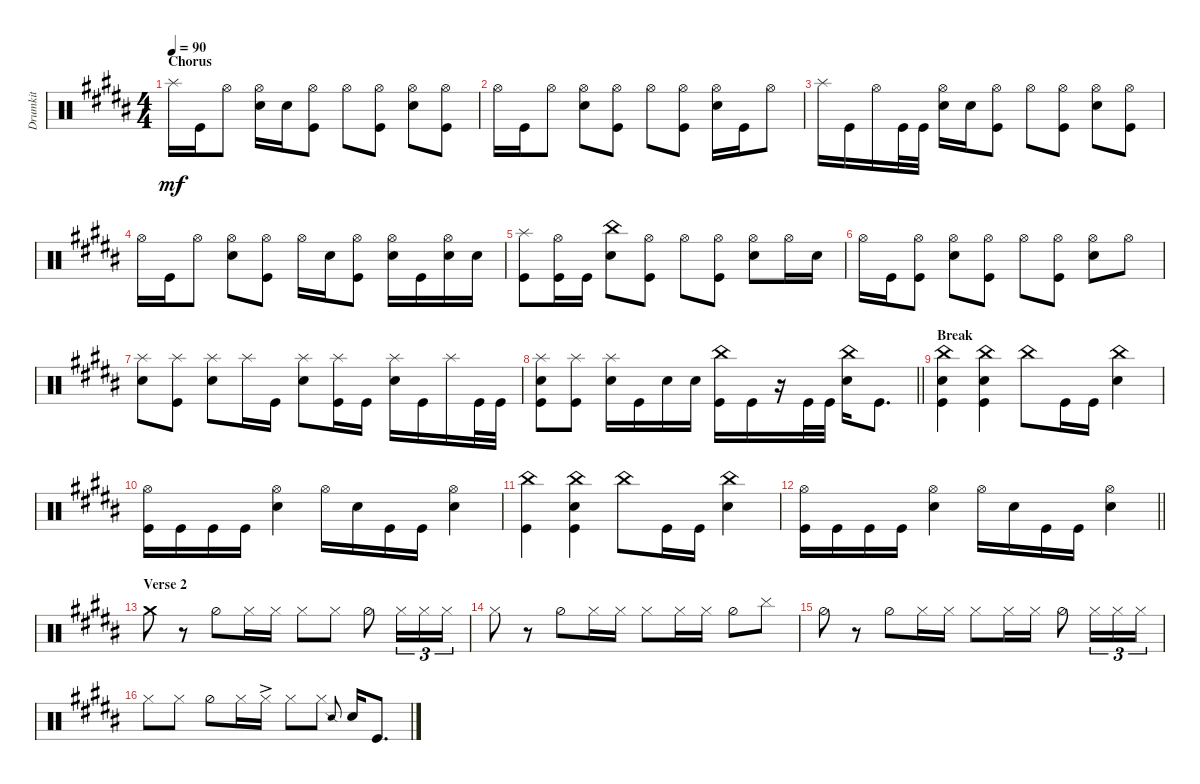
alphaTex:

\track ("Drumkit" "Drumkit") {instrument percussion}
\staff {score}
\articulation defaults
\ts (4 4)
\section ("" "Chorus")
\tempo 90
\clef neutral
\ks b "Splash (hit)".16{dy mf} "Kick (hit)".16 "Hi-Hat (open)".8
("Snare (hit) 2" "Hi-Hat (open)").16 "Snare (hit) 2".16 ("Kick (hit)" "Hi-Hat (open)").8 "Hi-Hat (open)".8 ("Kick (hit)" "Hi-Hat (open)").8 ("Snare (hit) 2" "Hi-Hat (open)").8 ("Kick (hit)" "Hi-Hat (open)").8 |
"Hi-Hat (open)".16 "Kick (hit)".16 "Hi-Hat (open)".8 ("Snare (hit) 2" "Hi-Hat (open)").8 ("Kick (hit)" "Hi-Hat (open)").8 "Hi-Hat (open)".8 ("Kick (hit)" "Hi-Hat (open)").8 ("Snare (hit) 2" "Hi-Hat (open)").16 "Kick (hit)".16 "Hi-Hat (open)".8 |
"Splash (hit)".16 "Kick (hit)".16 "Hi-Hat (open)".16 "Kick (hit)".32 "Kick (hit)".32 ("Snare (hit) 2" "Hi-Hat (open)").16 "Snare (hit) 2".16 ("Kick (hit)" "Hi-Hat (open)").8 "Hi-Hat (open)".8 ("Kick (hit)" "Hi-Hat (open)").8 ("Snare (hit) 2" "Hi-Hat (open)").8 ("Kick (hit)" "Hi-Hat (open)").8 |
"Hi-Hat (open)".16 "Kick (hit)".16 "Hi-Hat (open)".8 ("Snare (hit) 2" "Hi-Hat (open)").8 ("Kick (hit)" "Hi-Hat (open)").8 "Hi-Hat (open)".16 "Snare (hit) 2".16 ("Kick (hit)" "Hi-Hat (open)").8 ("Snare (hit) 2" "Hi-Hat (open)").16 "Kick (hit)".16 ("Hi-Hat (open)" "Snare (hit) 2").16 "Snare (hit) 2".16 |
("Kick (hit)" "Splash (hit)").8 ("Hi-Hat (open)" "Kick (hit)").16 "Kick (hit)".16 ("Snare (hit) 2" "China (hit)").8 ("Kick (hit)" "Hi-Hat (open)").8 "Hi-Hat (open)".8 ("Kick (hit)" "Hi-Hat (open)").8 ("Snare (hit) 2" "Hi-Hat (open)").8 "Hi-Hat (open)".16 "Snare (hit) 2".16 |
"Hi-Hat (open)".16 "Kick (hit)".16 ("Hi-Hat (open)" "Kick (hit)").8 ("Snare (hit) 2" "Hi-Hat (open)").8 ("Kick (hit)" "Hi-Hat (open)").8 "Hi-Hat (open)".8 ("Kick (hit)" "Hi-Hat (open)").8 ("Snare (hit) 2" "Hi-Hat (open)").8 "Hi-Hat (open)".8 |
("Splash (hit)" "Snare (hit) 2").8 ("Splash (hit)" "Kick (hit)").8 ("Splash (hit)" "Snare (hit) 2").8 "Splash (hit)".16 "Kick (hit)".16 ("Splash (hit)" "Snare (hit) 2").8 ("Splash (hit)" "Kick (hit)").16 "Kick (hit)".16 ("Splash (hit)" "Snare (hit) 2").16 "Kick (hit)".16 "Splash (hit)".16 "Kick (hit)".32 "Kick (hit)".32 |
\barLineRight lightlight
("Kick (hit)" "Snare (hit) 2" "Splash (hit)").8 ("Kick (hit)" "Splash (hit)").8 ("Snare (hit) 2" "Splash (hit)").16 "Kick (hit)".16 "Snare (hit) 2".16 "Snare (hit) 2".16 ("Kick (hit)" "China (hit)").16 "Kick (hit)".16 r.16 "Kick (hit)".32 "Kick (hit)".32 ("Snare (hit) 2" "China (hit)").16 "Kick (hit)".8{d} |
\section ("" "Break")
("China (hit)" "Kick (hit)" "Snare (hit) 2").4 ("Snare (hit) 2" "Kick (hit)" "China (hit)").4 "China (hit)".8 "Kick (hit)".16 "Kick (hit)".16 ("Snare (hit) 2" "China (hit)").4 |
("Hi-Hat (open)" "Kick (hit)").16 "Kick (hit)".16 "Kick (hit)".16 "Kick (hit)".16 ("Hi-Hat (open)" "Snare (hit) 2").4 "Hi-Hat (open)".16 "Snare (hit) 2".16 "Kick (hit)".16 "Kick (hit)".16 ("Hi-Hat (open)" "Snare (hit) 2").4 |
("China (hit)" "Kick (hit)").4 ("Snare (hit) 2" "Kick (hit)" "China (hit)").4 "China (hit)".8 "Kick (hit)".16 "Kick (hit)".16 ("Snare (hit) 2" "China (hit)").4 |
\barLineRight lightlight
("Hi-Hat (open)" "Kick (hit)").16 "Kick (hit)".16 "Kick (hit)".16 "Kick (hit)".16 ("Hi-Hat (open)" "Snare (hit) 2").4 "Hi-Hat (open)".16 "Snare (hit) 2".16 "Kick (hit)".16 "Kick (hit)".16 ("Hi-Hat (open)" "Snare (hit) 2").4 |
\section ("" "Verse 2")
"Crash medium (hit)".8 r.8 "Hi-Hat (half)".8 "Hi-Hat (closed)".16 "Hi-Hat (closed)".16 "Hi-Hat (closed)".8 "Hi-Hat (closed)".8 "Hi-Hat (half)".8 "Hi-Hat (closed)".16{tu (3 2)} "Hi-Hat (closed)".16{tu (3 2)} "Hi-Hat (closed)".16{tu (3 2)} |
"Hi-Hat (closed)".8 r.8 "Hi-Hat (half)".8 "Hi-Hat (closed)".16 "Hi-Hat (closed)".16 "Hi-Hat (closed)".8 "Hi-Hat (closed)".16 "Hi-Hat (closed)".16 "Hi-Hat (half)".8 "Cymbal (hit)".8 |
"Hi-Hat (half)".8 r.8 "Hi-Hat (half)".8 "Hi-Hat (closed)".16 "Hi-Hat (closed)".16 "Hi-Hat (closed)".8 "Hi-Hat (closed)".16 "Hi-Hat (closed)".16 "Hi-Hat (half)".8 "Hi-Hat (closed)".16{tu (3 2)} "Hi-Hat (closed)".16{tu (3 2)} "Hi-Hat (closed)".16{tu (3 2)} |
"Hi-Hat (closed)".8 "Hi-Hat (closed)".8 "Hi-Hat (half)".8 "Hi-Hat (closed)".16 "Hi-Hat (closed)"{ac}.16 "Hi-Hat (closed)".8 "Hi-Hat (closed)".8 "Snare (side stick) 2".8{gr onbeat} "Snare (hit) 2".16 "Kick (hit)".8{d}
